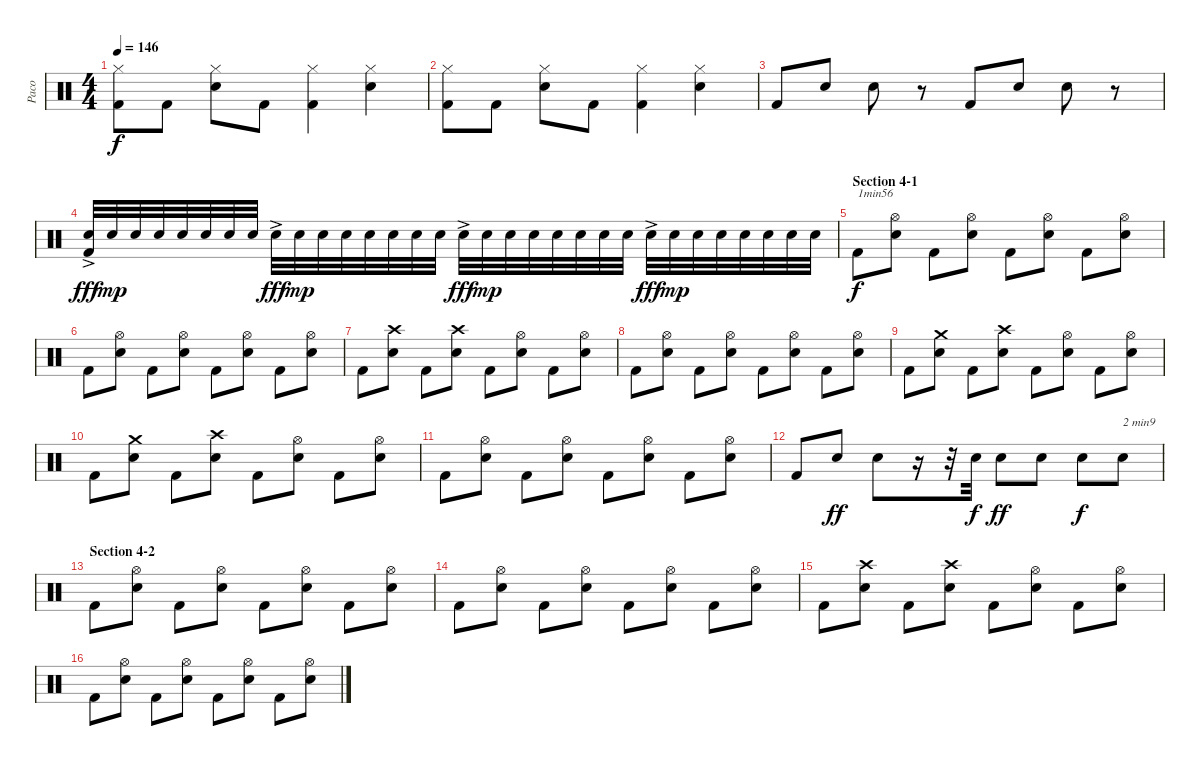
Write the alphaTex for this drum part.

\track ("Paco" "Paco") {instrument percussion}
\staff {score}
\articulation defaults
\ts (4 4)
\tempo 146
\clef neutral
\ks c
("Hi-Hat (closed)" "Kick (hit) 2").8{dy f} "Kick (hit) 2".8 ("Hi-Hat (closed)" "Snare (hit) 2").8 "Kick (hit) 2".8 ("Hi-Hat (closed)" "Kick (hit) 2").4 ("Hi-Hat (closed)" "Snare (hit) 2").4 |
("Hi-Hat (closed)" "Kick (hit) 2").8 "Kick (hit) 2".8 ("Hi-Hat (closed)" "Snare (hit) 2").8 "Kick (hit) 2".8 ("Hi-Hat (closed)" "Kick (hit) 2").4 ("Hi-Hat (closed)" "Snare (hit) 2").4 |
"Kick (hit) 2".8 "Snare (hit) 2".8 "Snare (hit) 2".8 r.8 "Kick (hit) 2".8 "Snare (hit) 2".8 "Snare (hit) 2".8 r.8 |
("Snare (hit) 2"{ac} "Kick (hit) 2").32{dy fff} "Snare (hit) 2".32{dy mp} "Snare (hit) 2".32 "Snare (hit) 2".32 "Snare (hit) 2".32 "Snare (hit) 2".32 "Snare (hit) 2".32 "Snare (hit) 2".32 "Snare (hit) 2"{ac}.32{dy fff} "Snare (hit) 2".32{dy mp} "Snare (hit) 2".32 "Snare (hit) 2".32 "Snare (hit) 2".32 "Snare (hit) 2".32 "Snare (hit) 2".32 "Snare (hit) 2".32 "Snare (hit) 2"{ac}.32{dy fff} "Snare (hit) 2".32{dy mp} "Snare (hit) 2".32 "Snare (hit) 2".32 "Snare (hit) 2".32 "Snare (hit) 2".32 "Snare (hit) 2".32 "Snare (hit) 2".32 "Snare (hit) 2"{ac}.32{dy fff} "Snare (hit) 2".32{dy mp} "Snare (hit) 2".32 "Snare (hit) 2".32 "Snare (hit) 2".32 "Snare (hit) 2".32 "Snare (hit) 2".32 "Snare (hit) 2".32 |
\section ("" "Section 4-1")
"Kick (hit) 2".8{txt "1min56" dy f} ("Hi-Hat (open)" "Snare (hit) 2").8 "Kick (hit) 2".8 ("Hi-Hat (open)" "Snare (hit) 2").8 "Kick (hit) 2".8 ("Hi-Hat (open)" "Snare (hit) 2").8 "Kick (hit) 2".8 ("Hi-Hat (open)" "Snare (hit) 2").8 |
"Kick (hit) 2".8 ("Hi-Hat (open)" "Snare (hit) 2").8 "Kick (hit) 2".8 ("Hi-Hat (open)" "Snare (hit) 2").8 "Kick (hit) 2".8 ("Hi-Hat (open)" "Snare (hit) 2").8 "Kick (hit) 2".8 ("Hi-Hat (open)" "Snare (hit) 2").8 |
"Kick (hit) 2".8 ("Crash high (hit)" "Snare (hit) 2").8 "Kick (hit) 2".8 ("Crash high (hit)" "Snare (hit) 2").8 "Kick (hit) 2".8 ("Hi-Hat (open)" "Snare (hit) 2").8 "Kick (hit) 2".8 ("Hi-Hat (open)" "Snare (hit) 2").8 |
"Kick (hit) 2".8 ("Hi-Hat (open)" "Snare (hit) 2").8 "Kick (hit) 2".8 ("Hi-Hat (open)" "Snare (hit) 2").8 "Kick (hit) 2".8 ("Hi-Hat (open)" "Snare (hit) 2").8 "Kick (hit) 2".8 ("Hi-Hat (open)" "Snare (hit) 2").8 |
"Kick (hit) 2".8 ("Crash medium (hit)" "Snare (hit) 2").8 "Kick (hit) 2".8 ("Crash high (hit)" "Snare (hit) 2").8 "Kick (hit) 2".8 ("Hi-Hat (open)" "Snare (hit) 2").8 "Kick (hit) 2".8 ("Hi-Hat (open)" "Snare (hit) 2").8 |
"Kick (hit) 2".8 ("Crash medium (hit)" "Snare (hit) 2").8 "Kick (hit) 2".8 ("Crash high (hit)" "Snare (hit) 2").8 "Kick (hit) 2".8 ("Hi-Hat (open)" "Snare (hit) 2").8 "Kick (hit) 2".8 ("Hi-Hat (open)" "Snare (hit) 2").8 |
"Kick (hit) 2".8 ("Hi-Hat (open)" "Snare (hit) 2").8 "Kick (hit) 2".8 ("Hi-Hat (open)" "Snare (hit) 2").8 "Kick (hit) 2".8 ("Hi-Hat (open)" "Snare (hit) 2").8 "Kick (hit) 2".8 ("Hi-Hat (open)" "Snare (hit) 2").8 |
"Kick (hit) 2".8 "Snare (hit) 2".8{dy ff} "Snare (hit) 2".8 r.16 r.32 "Snare (hit) 2".32{dy f} "Snare (hit) 2".8{dy ff} "Snare (hit) 2".8 "Snare (hit) 2".8{dy f} "Snare (hit) 2".8{txt "2 min9"} |
\section ("" "Section 4-2")
"Kick (hit) 2".8 ("Hi-Hat (open)" "Snare (hit) 2").8 "Kick (hit) 2".8 ("Hi-Hat (open)" "Snare (hit) 2").8 "Kick (hit) 2".8 ("Hi-Hat (open)" "Snare (hit) 2").8 "Kick (hit) 2".8 ("Hi-Hat (open)" "Snare (hit) 2").8 |
"Kick (hit) 2".8 ("Hi-Hat (open)" "Snare (hit) 2").8 "Kick (hit) 2".8 ("Hi-Hat (open)" "Snare (hit) 2").8 "Kick (hit) 2".8 ("Hi-Hat (open)" "Snare (hit) 2").8 "Kick (hit) 2".8 ("Hi-Hat (open)" "Snare (hit) 2").8 |
"Kick (hit) 2".8 ("Crash high (hit)" "Snare (hit) 2").8 "Kick (hit) 2".8 ("Crash high (hit)" "Snare (hit) 2").8 "Kick (hit) 2".8 ("Hi-Hat (open)" "Snare (hit) 2").8 "Kick (hit) 2".8 ("Hi-Hat (open)" "Snare (hit) 2").8 |
"Kick (hit) 2".8 ("Hi-Hat (open)" "Snare (hit) 2").8 "Kick (hit) 2".8 ("Hi-Hat (open)" "Snare (hit) 2").8 "Kick (hit) 2".8 ("Hi-Hat (open)" "Snare (hit) 2").8 "Kick (hit) 2".8 ("Hi-Hat (open)" "Snare (hit) 2").8
